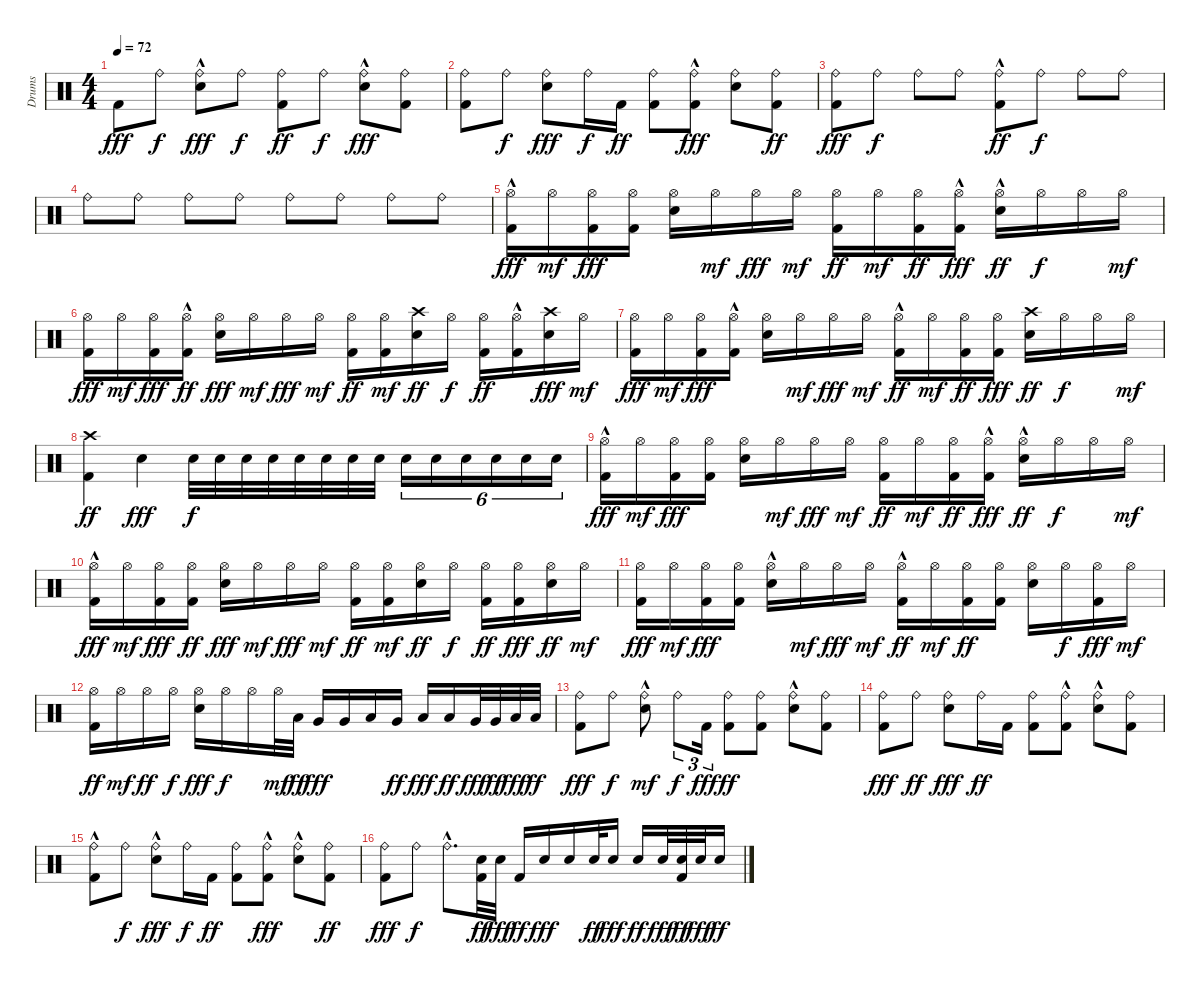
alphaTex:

\track ("Drums" "Drums") {instrument percussion}
\staff {score}
\articulation defaults
\ts (4 4)
\tempo 72
\clef neutral
\ks c "Kick (hit) 2".8{dy fff} "Ride (bell)".8{dy f}
("Snare (hit) 2"{hac} "Ride (bell)").8{dy fff} "Ride (bell)".8{dy f} ("Ride (bell)" "Kick (hit) 2").8{dy ff} "Ride (bell)".8{dy f} ("Snare (hit) 2"{hac} "Ride (bell)").8{dy fff} ("Kick (hit) 2" "Ride (bell)").8 |
("Kick (hit) 2" "Ride (bell)").8 "Ride (bell)".8{dy f} ("Snare (hit) 2" "Ride (bell)").8{dy fff} "Ride (bell)".16{dy f} "Kick (hit) 2".16{dy ff} ("Kick (hit) 2" "Ride (bell)").8 ("Kick (hit) 2"{hac} "Ride (bell)").8{dy fff} ("Snare (hit) 2" "Ride (bell)").8 ("Kick (hit) 2" "Ride (bell)").8{dy ff} |
("Kick (hit) 2" "Ride (bell)").8{dy fff} "Ride (bell)".8{dy f} "Ride (bell)".8 "Ride (bell)".8 ("Ride (bell)" "Kick (hit) 2"{hac}).8{dy ff} "Ride (bell)".8{dy f} "Ride (bell)".8 "Ride (bell)".8 |
"Ride (bell)".8 "Ride (bell)".8 "Ride (bell)".8 "Ride (bell)".8 "Ride (bell)".8 "Ride (bell)".8 "Ride (bell)".8 "Ride (bell)".8 |
("Kick (hit) 2"{hac} "Hi-Hat (open)").16{dy fff} "Hi-Hat (open)".16{dy mf} ("Kick (hit) 2" "Hi-Hat (open)").16{dy fff} ("Kick (hit) 2" "Hi-Hat (open)").16 ("Snare (hit) 2" "Hi-Hat (open)").16 "Hi-Hat (open)".16{dy mf} "Hi-Hat (open)".16{dy fff} "Hi-Hat (open)".16{dy mf} ("Kick (hit) 2" "Hi-Hat (open)").16{dy ff} "Hi-Hat (open)".16{dy mf} ("Kick (hit) 2" "Hi-Hat (open)").16{dy ff} ("Kick (hit) 2"{hac} "Hi-Hat (open)").16{dy fff} ("Snare (hit) 2"{hac} "Hi-Hat (open)").16{dy ff} "Hi-Hat (open)".16{dy f} "Hi-Hat (open)".16 "Hi-Hat (open)".16{dy mf} |
("Kick (hit) 2" "Hi-Hat (open)").16{dy fff} "Hi-Hat (open)".16{dy mf} ("Kick (hit) 2" "Hi-Hat (open)").16{dy fff} ("Kick (hit) 2"{hac} "Hi-Hat (open)").16{dy ff} ("Snare (hit) 2" "Hi-Hat (open)").16{dy fff} "Hi-Hat (open)".16{dy mf} "Hi-Hat (open)".16{dy fff} "Hi-Hat (open)".16{dy mf} ("Kick (hit) 2" "Hi-Hat (open)").16{dy ff} ("Kick (hit) 2" "Hi-Hat (open)").16{dy mf} ("Snare (hit) 2" "Crash high (hit)").16{dy ff} "Hi-Hat (open)".16{dy f} ("Kick (hit) 2" "Hi-Hat (open)").16{dy ff} ("Kick (hit) 2"{hac} "Hi-Hat (open)").16 ("Snare (hit) 2" "Crash high (hit)").16{dy fff} "Hi-Hat (open)".16{dy mf} |
("Kick (hit) 2" "Hi-Hat (open)").16{dy fff} "Hi-Hat (open)".16{dy mf} ("Kick (hit) 2" "Hi-Hat (open)").16{dy fff} ("Kick (hit) 2"{hac} "Hi-Hat (open)").16 ("Snare (hit) 2" "Hi-Hat (open)").16 "Hi-Hat (open)".16{dy mf} "Hi-Hat (open)".16{dy fff} "Hi-Hat (open)".16{dy mf} ("Kick (hit) 2"{hac} "Hi-Hat (open)").16{dy ff} "Hi-Hat (open)".16{dy mf} ("Kick (hit) 2" "Hi-Hat (open)").16{dy ff} ("Kick (hit) 2" "Hi-Hat (open)").16{dy fff} ("Snare (hit) 2" "Crash high (hit)").16{dy ff} "Hi-Hat (open)".16{dy f} "Hi-Hat (open)".16 "Hi-Hat (open)".16{dy mf} |
("Kick (hit) 2" "Crash high (hit)").4{dy ff} "Snare (hit) 2".4{dy fff} "Snare (hit) 2".32{dy f} "Snare (hit) 2".32 "Snare (hit) 2".32 "Snare (hit) 2".32 "Snare (hit) 2".32 "Snare (hit) 2".32 "Snare (hit) 2".32 "Snare (hit) 2".32 "Snare (hit) 2".16{tu (6 4)} "Snare (hit) 2".16{tu (6 4)} "Snare (hit) 2".16{tu (6 4)} "Snare (hit) 2".16{tu (6 4)} "Snare (hit) 2".16{tu (6 4)} "Snare (hit) 2".16{tu (6 4)} |
("Kick (hit) 2"{hac} "Hi-Hat (open)").16{dy fff} "Hi-Hat (open)".16{dy mf} ("Kick (hit) 2" "Hi-Hat (open)").16{dy fff} ("Kick (hit) 2" "Hi-Hat (open)").16 ("Snare (hit) 2" "Hi-Hat (open)").16 "Hi-Hat (open)".16{dy mf} "Hi-Hat (open)".16{dy fff} "Hi-Hat (open)".16{dy mf} ("Kick (hit) 2" "Hi-Hat (open)").16{dy ff} "Hi-Hat (open)".16{dy mf} ("Kick (hit) 2" "Hi-Hat (open)").16{dy ff} ("Kick (hit) 2"{hac} "Hi-Hat (open)").16{dy fff} ("Snare (hit) 2"{hac} "Hi-Hat (open)").16{dy ff} "Hi-Hat (open)".16{dy f} "Hi-Hat (open)".16 "Hi-Hat (open)".16{dy mf} |
("Kick (hit) 2"{hac} "Hi-Hat (open)").16{dy fff} "Hi-Hat (open)".16{dy mf} ("Kick (hit) 2" "Hi-Hat (open)").16{dy fff} ("Kick (hit) 2" "Hi-Hat (open)").16{dy ff} ("Snare (hit) 2" "Hi-Hat (open)").16{dy fff} "Hi-Hat (open)".16{dy mf} "Hi-Hat (open)".16{dy fff} "Hi-Hat (open)".16{dy mf} ("Kick (hit) 2" "Hi-Hat (open)").16{dy ff} ("Kick (hit) 2" "Hi-Hat (open)").16{dy mf} ("Snare (hit) 2" "Hi-Hat (open)").16{dy ff} "Hi-Hat (open)".16{dy f} ("Kick (hit) 2" "Hi-Hat (open)").16{dy ff} ("Kick (hit) 2" "Hi-Hat (open)").16{dy fff} ("Hi-Hat (open)" "Snare (hit) 2").16{dy ff} "Hi-Hat (open)".16{dy mf} |
("Kick (hit) 2" "Hi-Hat (open)").16{dy fff} "Hi-Hat (open)".16{dy mf} ("Kick (hit) 2" "Hi-Hat (open)").16{dy fff} ("Kick (hit) 2" "Hi-Hat (open)").16 ("Snare (hit) 2"{hac} "Hi-Hat (open)").16 "Hi-Hat (open)".16{dy mf} "Hi-Hat (open)".16{dy fff} "Hi-Hat (open)".16{dy mf} ("Kick (hit) 2"{hac} "Hi-Hat (open)").16{dy ff} "Hi-Hat (open)".16{dy mf} ("Kick (hit) 2" "Hi-Hat (open)").16{dy ff} ("Kick (hit) 2" "Hi-Hat (open)").16 ("Snare (hit) 2" "Hi-Hat (open)").16 "Hi-Hat (open)".16{dy f} ("Kick (hit) 2" "Hi-Hat (open)").16{dy fff} "Hi-Hat (open)".16{dy mf} |
("Kick (hit) 2" "Hi-Hat (open)").16{dy ff} "Hi-Hat (open)".16{dy mf} "Hi-Hat (open)".16{dy ff} "Hi-Hat (open)".16{dy f} ("Hi-Hat (open)" "Snare (hit) 2").16{dy fff} "Hi-Hat (open)".16{dy f} "Hi-Hat (open)".16 "Hi-Hat (open)".32{dy mf} "Low Floor Tom (hit)".32{dy ff} "Very Low Tom (hit)".16{dy fff} "Very Low Tom (hit)".16 "Low Floor Tom (hit)".16 "Very Low Tom (hit)".16{dy ff} "Low Tom (hit)".16{dy fff} "Low Tom (hit)".16{dy ff} "Very Low Tom (hit)".32{dy fff} "Very Low Tom (hit)".32{dy ff} "Low Floor Tom (hit)".32{dy fff} "Low Floor Tom (hit)".32{dy ff} |
("Ride (bell)" "Kick (hit) 2").8{dy fff} "Ride (bell)".8{dy f} ("Snare (hit) 2"{hac} "Ride (bell)").8{dy mf} "Ride (bell)".8{tu (3 2) dy f} "Kick (hit) 2".16{tu (3 2) dy fff} ("Ride (bell)" "Kick (hit) 2").8{dy ff} ("Kick (hit) 2" "Ride (bell)").8 ("Snare (hit) 2"{hac} "Ride (bell)").8 ("Kick (hit) 2" "Ride (bell)").8 |
("Ride (bell)" "Kick (hit) 2").8{dy fff} "Ride (bell)".8{dy ff} ("Snare (hit) 2" "Ride (bell)").8{dy fff} "Ride (bell)".16{dy ff} "Kick (hit) 2".16 ("Ride (bell)" "Kick (hit) 2").8 ("Kick (hit) 2"{hac} "Ride (bell)").8 ("Snare (hit) 2"{hac} "Ride (bell)").8 ("Kick (hit) 2" "Ride (bell)").8 |
("Ride (bell)" "Kick (hit) 2"{hac}).8 "Ride (bell)".8{dy f} ("Snare (hit) 2"{hac} "Ride (bell)").8{dy fff} "Ride (bell)".16{dy f} "Kick (hit) 2".16{dy ff} ("Kick (hit) 2" "Ride (bell)").8 ("Kick (hit) 2"{hac} "Ride (bell)").8{dy fff} ("Snare (hit) 2"{hac} "Ride (bell)").8 ("Kick (hit) 2" "Ride (bell)").8{dy ff} |
("Ride (bell)" "Kick (hit) 2").8{dy fff} "Ride (bell)".8{dy f} "Ride (bell)"{hac}.8{d} ("Kick (hit) 2" "Snare (hit) 2").32{dy ff} "Snare (hit) 2".32{dy fff} "Kick (hit) 2".16{dy ff} "Snare (hit) 2".16{dy fff} "Snare (hit) 2".16 "Snare (hit) 2".32{dy ff} "Snare (hit) 2".16{dy fff} "Snare (hit) 2".16{dy ff} "Snare (hit) 2".32{dy fff} ("Kick (hit) 2" "Snare (hit) 2").32{dy ff} "Snare (hit) 2".32{dy fff} "Snare (hit) 2".16{dy ff}
